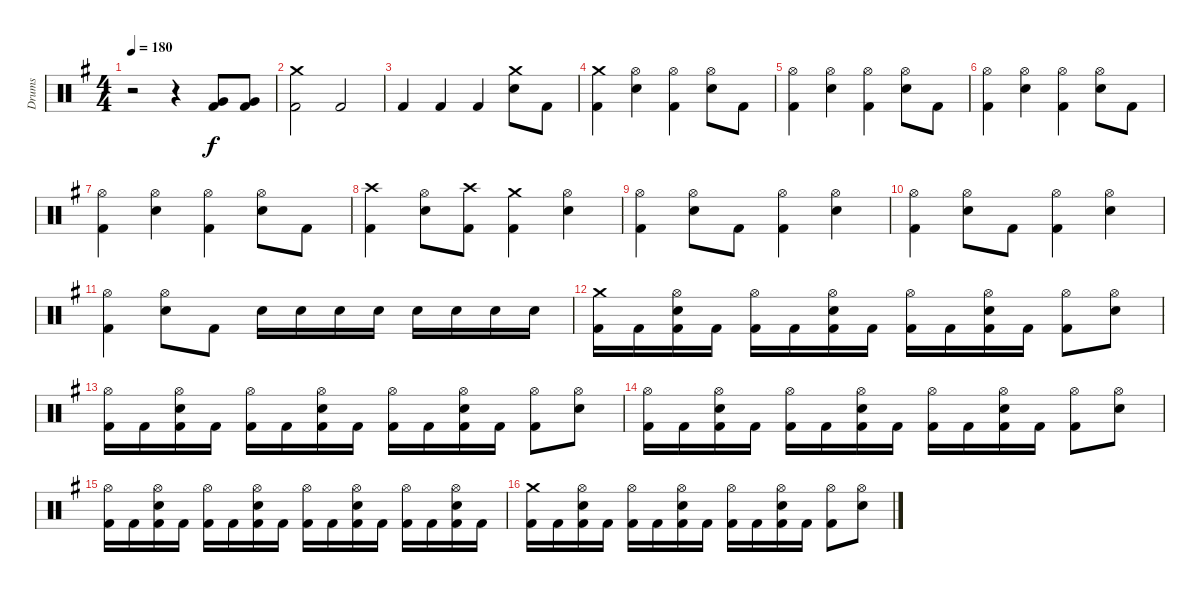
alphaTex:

\track ("Drums" "Drums") {instrument percussion}
\staff {score}
\articulation defaults
\ts (4 4)
\tempo 180
\clef neutral
\ks eminor
r.2{dy ppp} r.4 ("Kick (hit) 2" "Very Low Tom (hit)").8{dy f} ("Kick (hit) 2" "Very Low Tom (hit)").8 |
("Kick (hit) 2" "Crash medium (hit)").2 "Kick (hit) 2".2 |
"Kick (hit) 2".4 "Kick (hit) 2".4 "Kick (hit) 2".4 ("Electric Snare (hit)" "Crash medium (hit)").8 "Kick (hit) 2".8 |
("Kick (hit) 2" "Crash medium (hit)").4 ("Electric Snare (hit)" "Hi-Hat (open)").4 ("Kick (hit) 2" "Hi-Hat (open)").4 ("Electric Snare (hit)" "Hi-Hat (open)").8 "Kick (hit) 2".8 |
("Kick (hit) 2" "Hi-Hat (open)").4 ("Electric Snare (hit)" "Hi-Hat (open)").4 ("Kick (hit) 2" "Hi-Hat (open)").4 ("Electric Snare (hit)" "Hi-Hat (open)").8 "Kick (hit) 2".8 |
("Kick (hit) 2" "Hi-Hat (open)").4 ("Electric Snare (hit)" "Hi-Hat (open)").4 ("Kick (hit) 2" "Hi-Hat (open)").4 ("Electric Snare (hit)" "Hi-Hat (open)").8 "Kick (hit) 2".8 |
("Kick (hit) 2" "Hi-Hat (open)").4 ("Electric Snare (hit)" "Hi-Hat (open)").4 ("Kick (hit) 2" "Hi-Hat (open)").4 ("Electric Snare (hit)" "Hi-Hat (open)").8 "Kick (hit) 2".8 |
("Kick (hit) 2" "Crash high (hit)").4 ("Electric Snare (hit)" "Hi-Hat (open)").8 ("Kick (hit) 2" "Crash high (hit)").8 ("Kick (hit) 2" "Crash medium (hit)").4 ("Electric Snare (hit)" "Hi-Hat (open)").4 |
("Kick (hit) 2" "Hi-Hat (open)").4 ("Electric Snare (hit)" "Hi-Hat (open)").8 "Kick (hit) 2".8 ("Kick (hit) 2" "Hi-Hat (open)").4 ("Electric Snare (hit)" "Hi-Hat (open)").4 |
("Kick (hit) 2" "Hi-Hat (open)").4 ("Electric Snare (hit)" "Hi-Hat (open)").8 "Kick (hit) 2".8 ("Kick (hit) 2" "Hi-Hat (open)").4 ("Electric Snare (hit)" "Hi-Hat (open)").4 |
("Kick (hit) 2" "Hi-Hat (open)").4 ("Electric Snare (hit)" "Hi-Hat (open)").8 "Kick (hit) 2".8 "Electric Snare (hit)".16 "Electric Snare (hit)".16 "Electric Snare (hit)".16 "Electric Snare (hit)".16 "Electric Snare (hit)".16 "Electric Snare (hit)".16 "Electric Snare (hit)".16 "Electric Snare (hit)".16 |
\section ("" "")
("Kick (hit) 2" "Crash medium (hit)").16 "Kick (hit) 2".16 ("Kick (hit) 2" "Electric Snare (hit)" "Hi-Hat (open)").16 "Kick (hit) 2".16 ("Kick (hit) 2" "Hi-Hat (open)").16 "Kick (hit) 2".16 ("Kick (hit) 2" "Electric Snare (hit)" "Hi-Hat (open)").16 "Kick (hit) 2".16 ("Kick (hit) 2" "Hi-Hat (open)").16 "Kick (hit) 2".16 ("Kick (hit) 2" "Electric Snare (hit)" "Hi-Hat (open)").16 "Kick (hit) 2".16 ("Kick (hit) 2" "Hi-Hat (open)").8 ("Electric Snare (hit)" "Hi-Hat (open)").8 |
("Kick (hit) 2" "Hi-Hat (open)").16 "Kick (hit) 2".16 ("Kick (hit) 2" "Electric Snare (hit)" "Hi-Hat (open)").16 "Kick (hit) 2".16 ("Kick (hit) 2" "Hi-Hat (open)").16 "Kick (hit) 2".16 ("Kick (hit) 2" "Electric Snare (hit)" "Hi-Hat (open)").16 "Kick (hit) 2".16 ("Kick (hit) 2" "Hi-Hat (open)").16 "Kick (hit) 2".16 ("Kick (hit) 2" "Electric Snare (hit)" "Hi-Hat (open)").16 "Kick (hit) 2".16 ("Kick (hit) 2" "Hi-Hat (open)").8 ("Electric Snare (hit)" "Hi-Hat (open)").8 |
("Kick (hit) 2" "Hi-Hat (open)").16 "Kick (hit) 2".16 ("Kick (hit) 2" "Electric Snare (hit)" "Hi-Hat (open)").16 "Kick (hit) 2".16 ("Kick (hit) 2" "Hi-Hat (open)").16 "Kick (hit) 2".16 ("Kick (hit) 2" "Electric Snare (hit)" "Hi-Hat (open)").16 "Kick (hit) 2".16 ("Kick (hit) 2" "Hi-Hat (open)").16 "Kick (hit) 2".16 ("Kick (hit) 2" "Electric Snare (hit)" "Hi-Hat (open)").16 "Kick (hit) 2".16 ("Kick (hit) 2" "Hi-Hat (open)").8 ("Electric Snare (hit)" "Hi-Hat (open)").8 |
("Kick (hit) 2" "Hi-Hat (open)").16 "Kick (hit) 2".16 ("Kick (hit) 2" "Electric Snare (hit)" "Hi-Hat (open)").16 "Kick (hit) 2".16 ("Kick (hit) 2" "Hi-Hat (open)").16 "Kick (hit) 2".16 ("Kick (hit) 2" "Electric Snare (hit)" "Hi-Hat (open)").16 "Kick (hit) 2".16 ("Kick (hit) 2" "Hi-Hat (open)").16 "Kick (hit) 2".16 ("Kick (hit) 2" "Electric Snare (hit)" "Hi-Hat (open)").16 "Kick (hit) 2".16 ("Kick (hit) 2" "Hi-Hat (open)").16 "Kick (hit) 2".16 ("Kick (hit) 2" "Electric Snare (hit)" "Hi-Hat (open)").16 "Kick (hit) 2".16 |
("Kick (hit) 2" "Crash medium (hit)").16 "Kick (hit) 2".16 ("Kick (hit) 2" "Electric Snare (hit)" "Hi-Hat (open)").16 "Kick (hit) 2".16 ("Kick (hit) 2" "Hi-Hat (open)").16 "Kick (hit) 2".16 ("Kick (hit) 2" "Electric Snare (hit)" "Hi-Hat (open)").16 "Kick (hit) 2".16 ("Kick (hit) 2" "Hi-Hat (open)").16 "Kick (hit) 2".16 ("Kick (hit) 2" "Electric Snare (hit)" "Hi-Hat (open)").16 "Kick (hit) 2".16 ("Kick (hit) 2" "Hi-Hat (open)").8 ("Electric Snare (hit)" "Hi-Hat (open)").8
